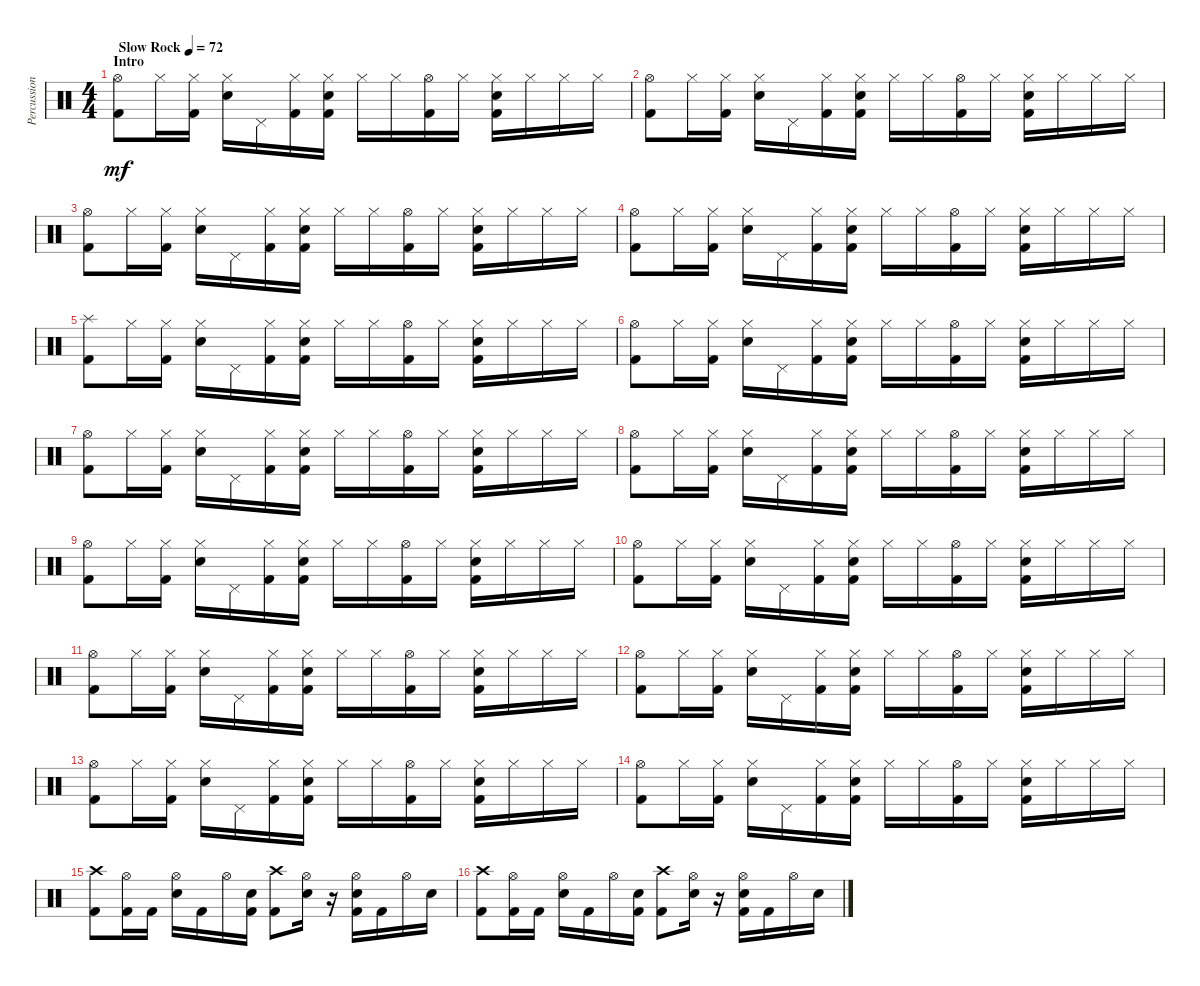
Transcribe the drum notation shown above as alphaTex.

\track ("Percussion" "Percussion") {instrument percussion}
\staff {score}
\articulation defaults
\ts (4 4)
\section ("" "Intro")
\tempo (72 "Slow Rock")
\clef neutral
\ks c
("Hi-Hat (open)" "Kick (hit) 2").8{dy mf} "Hi-Hat (closed)".16 ("Hi-Hat (closed)" "Kick (hit) 2").16 ("Hi-Hat (closed)" "Snare (hit) 2").16 "Pedal Hi-Hat (hit)".16 ("Hi-Hat (closed)" "Kick (hit) 2").16 ("Hi-Hat (closed)" "Snare (hit) 2" "Kick (hit) 2").16 "Hi-Hat (closed)".16 "Hi-Hat (closed)".16 ("Hi-Hat (open)" "Kick (hit) 2").16 "Hi-Hat (closed)".16 ("Hi-Hat (closed)" "Snare (hit) 2" "Kick (hit) 2").16 "Hi-Hat (closed)".16 "Hi-Hat (closed)".16 "Hi-Hat (closed)".16 |
("Hi-Hat (open)" "Kick (hit) 2").8 "Hi-Hat (closed)".16 ("Hi-Hat (closed)" "Kick (hit) 2").16 ("Hi-Hat (closed)" "Snare (hit) 2").16 "Pedal Hi-Hat (hit)".16 ("Hi-Hat (closed)" "Kick (hit) 2").16 ("Hi-Hat (closed)" "Snare (hit) 2" "Kick (hit) 2").16 "Hi-Hat (closed)".16 "Hi-Hat (closed)".16 ("Hi-Hat (open)" "Kick (hit) 2").16 "Hi-Hat (closed)".16 ("Hi-Hat (closed)" "Snare (hit) 2" "Kick (hit) 2").16 "Hi-Hat (closed)".16 "Hi-Hat (closed)".16 "Hi-Hat (closed)".16 |
("Hi-Hat (open)" "Kick (hit) 2").8 "Hi-Hat (closed)".16 ("Hi-Hat (closed)" "Kick (hit) 2").16 ("Hi-Hat (closed)" "Snare (hit) 2").16 "Pedal Hi-Hat (hit)".16 ("Hi-Hat (closed)" "Kick (hit) 2").16 ("Hi-Hat (closed)" "Snare (hit) 2" "Kick (hit) 2").16 "Hi-Hat (closed)".16 "Hi-Hat (closed)".16 ("Hi-Hat (open)" "Kick (hit) 2").16 "Hi-Hat (closed)".16 ("Hi-Hat (closed)" "Snare (hit) 2" "Kick (hit) 2").16 "Hi-Hat (closed)".16 "Hi-Hat (closed)".16 "Hi-Hat (closed)".16 |
("Hi-Hat (open)" "Kick (hit) 2").8 "Hi-Hat (closed)".16 ("Hi-Hat (closed)" "Kick (hit) 2").16 ("Hi-Hat (closed)" "Snare (hit) 2").16 "Pedal Hi-Hat (hit)".16 ("Hi-Hat (closed)" "Kick (hit) 2").16 ("Hi-Hat (closed)" "Snare (hit) 2" "Kick (hit) 2").16 "Hi-Hat (closed)".16 "Hi-Hat (closed)".16 ("Hi-Hat (open)" "Kick (hit) 2").16 "Hi-Hat (closed)".16 ("Hi-Hat (closed)" "Snare (hit) 2" "Kick (hit) 2").16 "Hi-Hat (closed)".16 "Hi-Hat (closed)".16 "Hi-Hat (closed)".16 |
("Splash (hit)" "Kick (hit) 2").8 "Hi-Hat (closed)".16 ("Hi-Hat (closed)" "Kick (hit) 2").16 ("Hi-Hat (closed)" "Snare (hit) 2").16 "Pedal Hi-Hat (hit)".16 ("Hi-Hat (closed)" "Kick (hit) 2").16 ("Hi-Hat (closed)" "Snare (hit) 2" "Kick (hit) 2").16 "Hi-Hat (closed)".16 "Hi-Hat (closed)".16 ("Hi-Hat (open)" "Kick (hit) 2").16 "Hi-Hat (closed)".16 ("Hi-Hat (closed)" "Snare (hit) 2" "Kick (hit) 2").16 "Hi-Hat (closed)".16 "Hi-Hat (closed)".16 "Hi-Hat (closed)".16 |
("Hi-Hat (open)" "Kick (hit) 2").8 "Hi-Hat (closed)".16 ("Hi-Hat (closed)" "Kick (hit) 2").16 ("Hi-Hat (closed)" "Snare (hit) 2").16 "Pedal Hi-Hat (hit)".16 ("Hi-Hat (closed)" "Kick (hit) 2").16 ("Hi-Hat (closed)" "Snare (hit) 2" "Kick (hit) 2").16 "Hi-Hat (closed)".16 "Hi-Hat (closed)".16 ("Hi-Hat (open)" "Kick (hit) 2").16 "Hi-Hat (closed)".16 ("Hi-Hat (closed)" "Snare (hit) 2" "Kick (hit) 2").16 "Hi-Hat (closed)".16 "Hi-Hat (closed)".16 "Hi-Hat (closed)".16 |
("Hi-Hat (open)" "Kick (hit) 2").8 "Hi-Hat (closed)".16 ("Hi-Hat (closed)" "Kick (hit) 2").16 ("Hi-Hat (closed)" "Snare (hit) 2").16 "Pedal Hi-Hat (hit)".16 ("Hi-Hat (closed)" "Kick (hit) 2").16 ("Hi-Hat (closed)" "Snare (hit) 2" "Kick (hit) 2").16 "Hi-Hat (closed)".16 "Hi-Hat (closed)".16 ("Hi-Hat (open)" "Kick (hit) 2").16 "Hi-Hat (closed)".16 ("Hi-Hat (closed)" "Snare (hit) 2" "Kick (hit) 2").16 "Hi-Hat (closed)".16 "Hi-Hat (closed)".16 "Hi-Hat (closed)".16 |
("Hi-Hat (open)" "Kick (hit) 2").8 "Hi-Hat (closed)".16 ("Hi-Hat (closed)" "Kick (hit) 2").16 ("Hi-Hat (closed)" "Snare (hit) 2").16 "Pedal Hi-Hat (hit)".16 ("Hi-Hat (closed)" "Kick (hit) 2").16 ("Hi-Hat (closed)" "Snare (hit) 2" "Kick (hit) 2").16 "Hi-Hat (closed)".16 "Hi-Hat (closed)".16 ("Hi-Hat (open)" "Kick (hit) 2").16 "Hi-Hat (closed)".16 ("Hi-Hat (closed)" "Snare (hit) 2" "Kick (hit) 2").16 "Hi-Hat (closed)".16 "Hi-Hat (closed)".16 "Hi-Hat (closed)".16 |
("Hi-Hat (open)" "Kick (hit) 2").8 "Hi-Hat (closed)".16 ("Hi-Hat (closed)" "Kick (hit) 2").16 ("Hi-Hat (closed)" "Snare (hit) 2").16 "Pedal Hi-Hat (hit)".16 ("Hi-Hat (closed)" "Kick (hit) 2").16 ("Hi-Hat (closed)" "Snare (hit) 2" "Kick (hit) 2").16 "Hi-Hat (closed)".16 "Hi-Hat (closed)".16 ("Hi-Hat (open)" "Kick (hit) 2").16 "Hi-Hat (closed)".16 ("Hi-Hat (closed)" "Snare (hit) 2" "Kick (hit) 2").16 "Hi-Hat (closed)".16 "Hi-Hat (closed)".16 "Hi-Hat (closed)".16 |
("Hi-Hat (open)" "Kick (hit) 2").8 "Hi-Hat (closed)".16 ("Hi-Hat (closed)" "Kick (hit) 2").16 ("Hi-Hat (closed)" "Snare (hit) 2").16 "Pedal Hi-Hat (hit)".16 ("Hi-Hat (closed)" "Kick (hit) 2").16 ("Hi-Hat (closed)" "Snare (hit) 2" "Kick (hit) 2").16 "Hi-Hat (closed)".16 "Hi-Hat (closed)".16 ("Hi-Hat (open)" "Kick (hit) 2").16 "Hi-Hat (closed)".16 ("Hi-Hat (closed)" "Snare (hit) 2" "Kick (hit) 2").16 "Hi-Hat (closed)".16 "Hi-Hat (closed)".16 "Hi-Hat (closed)".16 |
("Hi-Hat (open)" "Kick (hit) 2").8 "Hi-Hat (closed)".16 ("Hi-Hat (closed)" "Kick (hit) 2").16 ("Hi-Hat (closed)" "Snare (hit) 2").16 "Pedal Hi-Hat (hit)".16 ("Hi-Hat (closed)" "Kick (hit) 2").16 ("Hi-Hat (closed)" "Snare (hit) 2" "Kick (hit) 2").16 "Hi-Hat (closed)".16 "Hi-Hat (closed)".16 ("Hi-Hat (open)" "Kick (hit) 2").16 "Hi-Hat (closed)".16 ("Hi-Hat (closed)" "Snare (hit) 2" "Kick (hit) 2").16 "Hi-Hat (closed)".16 "Hi-Hat (closed)".16 "Hi-Hat (closed)".16 |
("Hi-Hat (open)" "Kick (hit) 2").8 "Hi-Hat (closed)".16 ("Hi-Hat (closed)" "Kick (hit) 2").16 ("Hi-Hat (closed)" "Snare (hit) 2").16 "Pedal Hi-Hat (hit)".16 ("Hi-Hat (closed)" "Kick (hit) 2").16 ("Hi-Hat (closed)" "Snare (hit) 2" "Kick (hit) 2").16 "Hi-Hat (closed)".16 "Hi-Hat (closed)".16 ("Hi-Hat (open)" "Kick (hit) 2").16 "Hi-Hat (closed)".16 ("Hi-Hat (closed)" "Snare (hit) 2" "Kick (hit) 2").16 "Hi-Hat (closed)".16 "Hi-Hat (closed)".16 "Hi-Hat (closed)".16 |
("Hi-Hat (open)" "Kick (hit) 2").8 "Hi-Hat (closed)".16 ("Hi-Hat (closed)" "Kick (hit) 2").16 ("Hi-Hat (closed)" "Snare (hit) 2").16 "Pedal Hi-Hat (hit)".16 ("Hi-Hat (closed)" "Kick (hit) 2").16 ("Hi-Hat (closed)" "Snare (hit) 2" "Kick (hit) 2").16 "Hi-Hat (closed)".16 "Hi-Hat (closed)".16 ("Hi-Hat (open)" "Kick (hit) 2").16 "Hi-Hat (closed)".16 ("Hi-Hat (closed)" "Snare (hit) 2" "Kick (hit) 2").16 "Hi-Hat (closed)".16 "Hi-Hat (closed)".16 "Hi-Hat (closed)".16 |
("Hi-Hat (open)" "Kick (hit) 2").8 "Hi-Hat (closed)".16 ("Hi-Hat (closed)" "Kick (hit) 2").16 ("Hi-Hat (closed)" "Snare (hit) 2").16 "Pedal Hi-Hat (hit)".16 ("Hi-Hat (closed)" "Kick (hit) 2").16 ("Hi-Hat (closed)" "Snare (hit) 2" "Kick (hit) 2").16 "Hi-Hat (closed)".16 "Hi-Hat (closed)".16 ("Hi-Hat (open)" "Kick (hit) 2").16 "Hi-Hat (closed)".16 ("Hi-Hat (closed)" "Snare (hit) 2" "Kick (hit) 2").16 "Hi-Hat (closed)".16 "Hi-Hat (closed)".16 "Hi-Hat (closed)".16 |
("Crash high (hit)" "Kick (hit) 2").8 ("Hi-Hat (open)" "Kick (hit) 2").16 "Kick (hit) 2".16 ("Hi-Hat (open)" "Snare (hit) 2").16 "Kick (hit) 2".16 "Hi-Hat (open)".16 ("Snare (hit) 2" "Kick (hit) 2").16 ("Crash high (hit)" "Kick (hit) 2").8 ("Hi-Hat (open)" "Snare (hit) 2").16 r.16 ("Hi-Hat (open)" "Snare (hit) 2" "Kick (hit) 2").16 "Kick (hit) 2".16 "Hi-Hat (open)".16 "Snare (hit) 2".16 |
("Crash high (hit)" "Kick (hit) 2").8 ("Hi-Hat (open)" "Kick (hit) 2").16 "Kick (hit) 2".16 ("Hi-Hat (open)" "Snare (hit) 2").16 "Kick (hit) 2".16 "Hi-Hat (open)".16 ("Snare (hit) 2" "Kick (hit) 2").16 ("Crash high (hit)" "Kick (hit) 2").8 ("Hi-Hat (open)" "Snare (hit) 2").16 r.16 ("Hi-Hat (open)" "Snare (hit) 2" "Kick (hit) 2").16 "Kick (hit) 2".16 "Hi-Hat (open)".16 "Snare (hit) 2".16
